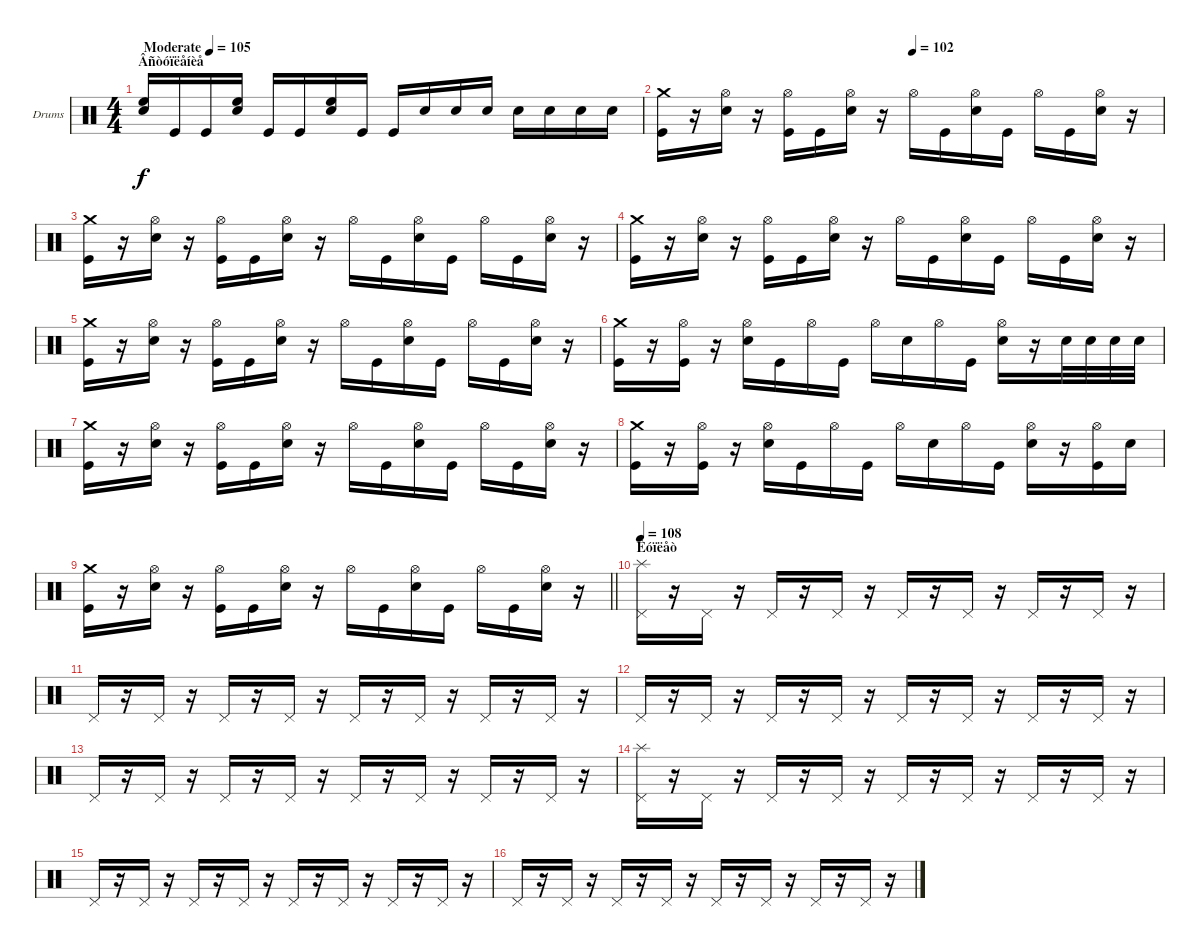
\bracketExtendMode groupsimilarinstruments
\firstSystemTrackNameOrientation horizontal
\otherSystemsTrackNameOrientation horizontal
\track ("Drumkit" "Drums") {instrument percussion}
\staff {score}
\articulation defaults
\ts (4 4)
\beaming (8 2 2 2 2)
\section ("" "Âñòóïëåíèå")
\tempo (105 "Moderate")
\clef neutral
\ks c
("High Floor Tom (hit)" "Snare (hit) 2").16{dy f} "Kick (hit)".16 "Kick (hit)".16 ("High Floor Tom (hit)" "Snare (hit) 2").16 "Kick (hit)".16 "Kick (hit)".16 ("High Floor Tom (hit)" "Snare (hit) 2").16 "Kick (hit)".16 "Kick (hit)".16 "Snare (hit) 2".16 "Snare (hit) 2".16 "Snare (hit) 2".16 "Snare (hit) 2".16 "Snare (hit) 2".16 "Snare (hit) 2".16 "Snare (hit) 2".16 |
\tempo (102 0.5)
("Crash medium (hit)" "Kick (hit)").16 r.16 ("Hi-Hat (open)" "Snare (hit) 2").16 r.16 ("Hi-Hat (open)" "Kick (hit)").16 "Kick (hit)".16 ("Hi-Hat (open)" "Snare (hit) 2").16 r.16 "Hi-Hat (open)".16 "Kick (hit)".16 ("Hi-Hat (open)" "Snare (hit) 2").16 "Kick (hit)".16 "Hi-Hat (open)".16 "Kick (hit)".16 ("Hi-Hat (open)" "Snare (hit) 2").16 r.16 |
("Crash medium (hit)" "Kick (hit)").16 r.16 ("Hi-Hat (open)" "Snare (hit) 2").16 r.16 ("Hi-Hat (open)" "Kick (hit)").16 "Kick (hit)".16 ("Hi-Hat (open)" "Snare (hit) 2").16 r.16 "Hi-Hat (open)".16 "Kick (hit)".16 ("Hi-Hat (open)" "Snare (hit) 2").16 "Kick (hit)".16 "Hi-Hat (open)".16 "Kick (hit)".16 ("Hi-Hat (open)" "Snare (hit) 2").16 r.16 |
("Crash medium (hit)" "Kick (hit)").16 r.16 ("Hi-Hat (open)" "Snare (hit) 2").16 r.16 ("Hi-Hat (open)" "Kick (hit)").16 "Kick (hit)".16 ("Hi-Hat (open)" "Snare (hit) 2").16 r.16 "Hi-Hat (open)".16 "Kick (hit)".16 ("Hi-Hat (open)" "Snare (hit) 2").16 "Kick (hit)".16 "Hi-Hat (open)".16 "Kick (hit)".16 ("Hi-Hat (open)" "Snare (hit) 2").16 r.16 |
("Crash medium (hit)" "Kick (hit)").16 r.16 ("Hi-Hat (open)" "Snare (hit) 2").16 r.16 ("Hi-Hat (open)" "Kick (hit)").16 "Kick (hit)".16 ("Hi-Hat (open)" "Snare (hit) 2").16 r.16 "Hi-Hat (open)".16 "Kick (hit)".16 ("Hi-Hat (open)" "Snare (hit) 2").16 "Kick (hit)".16 "Hi-Hat (open)".16 "Kick (hit)".16 ("Hi-Hat (open)" "Snare (hit) 2").16 r.16 |
("Crash medium (hit)" "Kick (hit)").16 r.16 ("Hi-Hat (open)" "Kick (hit)").16 r.16 ("Hi-Hat (open)" "Snare (hit) 2").16 "Kick (hit)".16 "Hi-Hat (open)".16 "Kick (hit)".16 "Hi-Hat (open)".16 "Snare (hit) 2".16 "Hi-Hat (open)".16 "Kick (hit)".16 ("Hi-Hat (open)" "Snare (hit) 2").16 r.16 "Snare (hit) 2".32 "Snare (hit) 2".32 "Snare (hit) 2".32 "Snare (hit) 2".32 |
("Crash medium (hit)" "Kick (hit)").16 r.16 ("Hi-Hat (open)" "Snare (hit) 2").16 r.16 ("Hi-Hat (open)" "Kick (hit)").16 "Kick (hit)".16 ("Hi-Hat (open)" "Snare (hit) 2").16 r.16 "Hi-Hat (open)".16 "Kick (hit)".16 ("Hi-Hat (open)" "Snare (hit) 2").16 "Kick (hit)".16 "Hi-Hat (open)".16 "Kick (hit)".16 ("Hi-Hat (open)" "Snare (hit) 2").16 r.16 |
("Crash medium (hit)" "Kick (hit)").16 r.16 ("Hi-Hat (open)" "Kick (hit)").16 r.16 ("Hi-Hat (open)" "Snare (hit) 2").16 "Kick (hit)".16 "Hi-Hat (open)".16 "Kick (hit)".16 "Hi-Hat (open)".16 "Snare (hit) 2".16 "Hi-Hat (open)".16 "Kick (hit)".16 ("Hi-Hat (open)" "Snare (hit) 2").16 r.16 ("Hi-Hat (open)" "Kick (hit)").16 "Snare (hit) 2".16 |
\barLineRight lightlight
("Crash medium (hit)" "Kick (hit)").16 r.16 ("Hi-Hat (open)" "Snare (hit) 2").16 r.16 ("Hi-Hat (open)" "Kick (hit)").16 "Kick (hit)".16 ("Hi-Hat (open)" "Snare (hit) 2").16 r.16 "Hi-Hat (open)".16 "Kick (hit)".16 ("Hi-Hat (open)" "Snare (hit) 2").16 "Kick (hit)".16 "Hi-Hat (open)".16 "Kick (hit)".16 ("Hi-Hat (open)" "Snare (hit) 2").16 r.16 |
\section ("" "Êóïëåò")
\tempo 108
("Splash (hit)" "Pedal Hi-Hat (hit)").16 r.16 "Pedal Hi-Hat (hit)".16 r.16 "Pedal Hi-Hat (hit)".16 r.16 "Pedal Hi-Hat (hit)".16 r.16 "Pedal Hi-Hat (hit)".16 r.16 "Pedal Hi-Hat (hit)".16 r.16 "Pedal Hi-Hat (hit)".16 r.16 "Pedal Hi-Hat (hit)".16 r.16 |
"Pedal Hi-Hat (hit)".16 r.16 "Pedal Hi-Hat (hit)".16 r.16 "Pedal Hi-Hat (hit)".16 r.16 "Pedal Hi-Hat (hit)".16 r.16 "Pedal Hi-Hat (hit)".16 r.16 "Pedal Hi-Hat (hit)".16 r.16 "Pedal Hi-Hat (hit)".16 r.16 "Pedal Hi-Hat (hit)".16 r.16 |
"Pedal Hi-Hat (hit)".16 r.16 "Pedal Hi-Hat (hit)".16 r.16 "Pedal Hi-Hat (hit)".16 r.16 "Pedal Hi-Hat (hit)".16 r.16 "Pedal Hi-Hat (hit)".16 r.16 "Pedal Hi-Hat (hit)".16 r.16 "Pedal Hi-Hat (hit)".16 r.16 "Pedal Hi-Hat (hit)".16 r.16 |
"Pedal Hi-Hat (hit)".16 r.16 "Pedal Hi-Hat (hit)".16 r.16 "Pedal Hi-Hat (hit)".16 r.16 "Pedal Hi-Hat (hit)".16 r.16 "Pedal Hi-Hat (hit)".16 r.16 "Pedal Hi-Hat (hit)".16 r.16 "Pedal Hi-Hat (hit)".16 r.16 "Pedal Hi-Hat (hit)".16 r.16 |
("Splash (hit)" "Pedal Hi-Hat (hit)").16 r.16 "Pedal Hi-Hat (hit)".16 r.16 "Pedal Hi-Hat (hit)".16 r.16 "Pedal Hi-Hat (hit)".16 r.16 "Pedal Hi-Hat (hit)".16 r.16 "Pedal Hi-Hat (hit)".16 r.16 "Pedal Hi-Hat (hit)".16 r.16 "Pedal Hi-Hat (hit)".16 r.16 |
"Pedal Hi-Hat (hit)".16 r.16 "Pedal Hi-Hat (hit)".16 r.16 "Pedal Hi-Hat (hit)".16 r.16 "Pedal Hi-Hat (hit)".16 r.16 "Pedal Hi-Hat (hit)".16 r.16 "Pedal Hi-Hat (hit)".16 r.16 "Pedal Hi-Hat (hit)".16 r.16 "Pedal Hi-Hat (hit)".16 r.16 |
"Pedal Hi-Hat (hit)".16 r.16 "Pedal Hi-Hat (hit)".16 r.16 "Pedal Hi-Hat (hit)".16 r.16 "Pedal Hi-Hat (hit)".16 r.16 "Pedal Hi-Hat (hit)".16 r.16 "Pedal Hi-Hat (hit)".16 r.16 "Pedal Hi-Hat (hit)".16 r.16 "Pedal Hi-Hat (hit)".16 r.16
